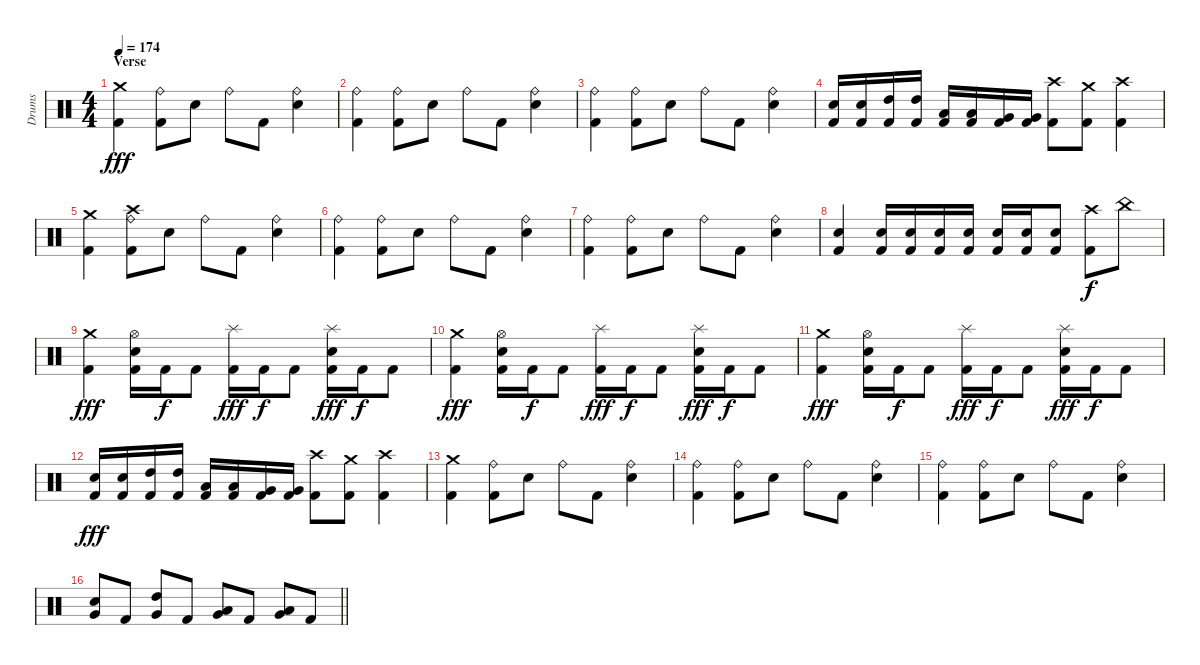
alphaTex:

\track ("Drums" "Drums") {instrument percussion}
\staff {score}
\articulation defaults
\ts (4 4)
\section ("" "Verse")
\tempo 174
\clef neutral
\ks c
("Crash medium (hit)" "Kick (hit) 2").4{dy fff} ("Ride (bell)" "Kick (hit) 2").8 "Snare (hit) 2".8 "Ride (bell)".8 "Kick (hit) 2".8 ("Ride (bell)" "Snare (hit) 2").4 |
("Ride (bell)" "Kick (hit) 2").4 ("Ride (bell)" "Kick (hit) 2").8 "Snare (hit) 2".8 "Ride (bell)".8 "Kick (hit) 2".8 ("Ride (bell)" "Snare (hit) 2").4 |
("Ride (bell)" "Kick (hit) 2").4 ("Ride (bell)" "Kick (hit) 2").8 "Snare (hit) 2".8 "Ride (bell)".8 "Kick (hit) 2".8 ("Ride (bell)" "Snare (hit) 2").4 |
("Snare (hit) 2" "Kick (hit) 2").16 ("Snare (hit) 2" "Kick (hit) 2").16 ("High Tom (hit)" "Kick (hit) 2").16 ("High Tom (hit)" "Kick (hit) 2").16 ("Low Tom (hit)" "Kick (hit) 2").16 ("Low Tom (hit)" "Kick (hit) 2").16 ("Very Low Tom (hit)" "Kick (hit) 2").16 ("Very Low Tom (hit)" "Kick (hit) 2").16 ("Crash high (hit)" "Kick (hit) 2").8 ("Crash medium (hit)" "Kick (hit) 2").8 ("Crash high (hit)" "Kick (hit) 2").4 |
("Crash medium (hit)" "Kick (hit) 2").4 ("Ride (bell)" "Crash high (hit)" "Kick (hit) 2").8 "Snare (hit) 2".8 "Ride (bell)".8 "Kick (hit) 2".8 ("Ride (bell)" "Snare (hit) 2").4 |
("Ride (bell)" "Kick (hit) 2").4 ("Ride (bell)" "Kick (hit) 2").8 "Snare (hit) 2".8 "Ride (bell)".8 "Kick (hit) 2".8 ("Ride (bell)" "Snare (hit) 2").4 |
("Ride (bell)" "Kick (hit) 2").4 ("Ride (bell)" "Kick (hit) 2").8 "Snare (hit) 2".8 "Ride (bell)".8 "Kick (hit) 2".8 ("Ride (bell)" "Snare (hit) 2").4 |
("Snare (hit) 2" "Kick (hit) 2").4 ("Snare (hit) 2" "Kick (hit) 2").16 ("Snare (hit) 2" "Kick (hit) 2").16 ("Snare (hit) 2" "Kick (hit) 2").16 ("Snare (hit) 2" "Kick (hit) 2").16 ("Snare (hit) 2" "Kick (hit) 2").16 ("Snare (hit) 2" "Kick (hit) 2").16 ("Snare (hit) 2" "Kick (hit) 2").8 ("Crash high (hit)" "Kick (hit) 2").8{dy f} "China (hit)".8 |
("Crash medium (hit)" "Kick (hit) 2").4{dy fff} ("Hi-Hat (open)" "Snare (hit) 2" "Kick (hit) 2").16 "Kick (hit) 2".16{dy f} "Kick (hit) 2".8 ("Splash (hit)" "Kick (hit) 2").16{dy fff} "Kick (hit) 2".16{dy f} "Kick (hit) 2".8 ("Splash (hit)" "Snare (hit) 2" "Kick (hit) 2").16{dy fff} "Kick (hit) 2".16{dy f} "Kick (hit) 2".8 |
("Crash medium (hit)" "Kick (hit) 2").4{dy fff} ("Hi-Hat (open)" "Snare (hit) 2" "Kick (hit) 2").16 "Kick (hit) 2".16{dy f} "Kick (hit) 2".8 ("Splash (hit)" "Kick (hit) 2").16{dy fff} "Kick (hit) 2".16{dy f} "Kick (hit) 2".8 ("Splash (hit)" "Snare (hit) 2" "Kick (hit) 2").16{dy fff} "Kick (hit) 2".16{dy f} "Kick (hit) 2".8 |
("Crash medium (hit)" "Kick (hit) 2").4{dy fff} ("Hi-Hat (open)" "Snare (hit) 2" "Kick (hit) 2").16 "Kick (hit) 2".16{dy f} "Kick (hit) 2".8 ("Splash (hit)" "Kick (hit) 2").16{dy fff} "Kick (hit) 2".16{dy f} "Kick (hit) 2".8 ("Splash (hit)" "Snare (hit) 2" "Kick (hit) 2").16{dy fff} "Kick (hit) 2".16{dy f} "Kick (hit) 2".8 |
("Snare (hit) 2" "Kick (hit) 2").16{dy fff} ("Snare (hit) 2" "Kick (hit) 2").16 ("High Tom (hit)" "Kick (hit) 2").16 ("High Tom (hit)" "Kick (hit) 2").16 ("Low Tom (hit)" "Kick (hit) 2").16 ("Low Tom (hit)" "Kick (hit) 2").16 ("Very Low Tom (hit)" "Kick (hit) 2").16 ("Very Low Tom (hit)" "Kick (hit) 2").16 ("Crash high (hit)" "Kick (hit) 2").8 ("Crash medium (hit)" "Kick (hit) 2").8 ("Crash high (hit)" "Kick (hit) 2").4 |
("Crash medium (hit)" "Kick (hit) 2").4 ("Ride (bell)" "Kick (hit) 2").8 "Snare (hit) 2".8 "Ride (bell)".8 "Kick (hit) 2".8 ("Ride (bell)" "Snare (hit) 2").4 |
("Ride (bell)" "Kick (hit) 2").4 ("Ride (bell)" "Kick (hit) 2").8 "Snare (hit) 2".8 "Ride (bell)".8 "Kick (hit) 2".8 ("Ride (bell)" "Snare (hit) 2").4 |
("Ride (bell)" "Kick (hit) 2").4 ("Ride (bell)" "Kick (hit) 2").8 "Snare (hit) 2".8 "Ride (bell)".8 "Kick (hit) 2".8 ("Ride (bell)" "Snare (hit) 2").4 |
\barLineRight lightlight
("Snare (hit) 2" "Very Low Tom (hit)").8 "Kick (hit) 2".8 ("High Tom (hit)" "Very Low Tom (hit)").8 "Kick (hit) 2".8 ("Low Tom (hit)" "Very Low Tom (hit)").8 "Kick (hit) 2".8 ("Low Floor Tom (hit)" "Very Low Tom (hit)").8 "Kick (hit) 2".8
